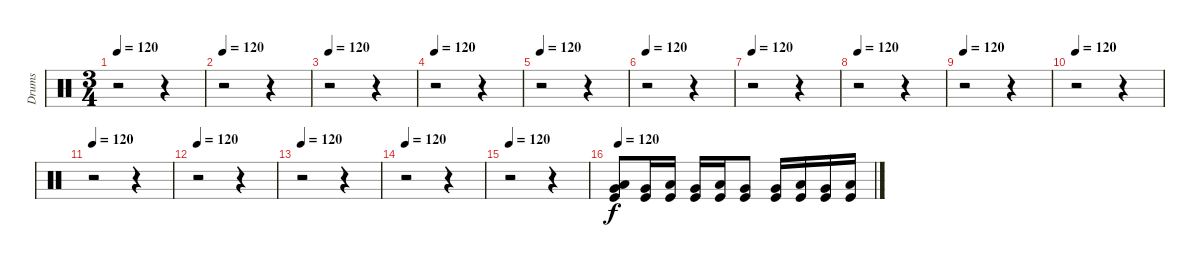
\track ("Drums" "Drums") {instrument percussion}
\staff {score}
\articulation defaults
\ts (3 4)
\tempo 120
\clef neutral
\ks c
r.2{dy f} r.4 |
\tempo 120
r.2 r.4 |
\tempo 120
r.2 r.4 |
\tempo 120
r.2 r.4 |
\tempo 120
r.2 r.4 |
\tempo 120
r.2 r.4 |
\tempo 120
r.2 r.4 |
\tempo 120
r.2 r.4 |
\tempo 120
r.2 r.4 |
\tempo 120
r.2 r.4 |
\tempo 120
r.2 r.4 |
\tempo 120
r.2 r.4 |
\tempo 120
r.2 r.4 |
\tempo 120
r.2 r.4 |
\tempo 120
r.2 r.4 |
\tempo 120
("Very Low Tom (hit)" "Low Floor Tom (hit)" "Kick (hit)").8 ("Very Low Tom (hit)" "Kick (hit)").16 ("Low Floor Tom (hit)" "Kick (hit)").16 ("Very Low Tom (hit)" "Kick (hit)").16 ("Low Floor Tom (hit)" "Kick (hit)").16 ("Very Low Tom (hit)" "Kick (hit)").8 ("Very Low Tom (hit)" "Kick (hit)").16 ("Low Floor Tom (hit)" "Kick (hit)").16 ("Very Low Tom (hit)" "Kick (hit)").16 ("Low Floor Tom (hit)" "Kick (hit)").16
